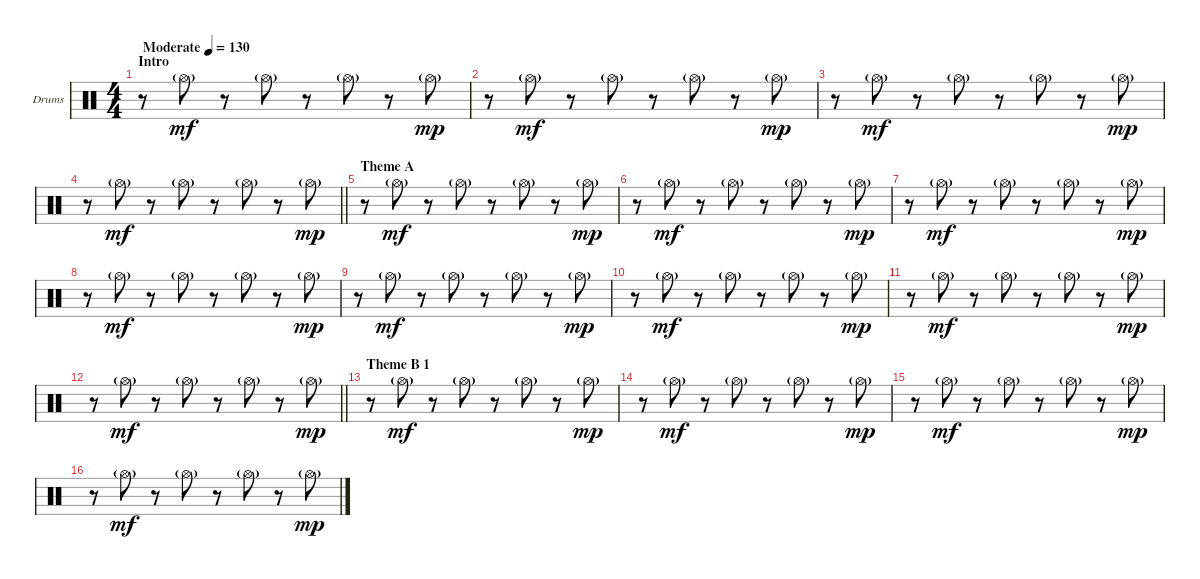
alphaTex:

\bracketExtendMode groupsimilarinstruments
\firstSystemTrackNameOrientation horizontal
\otherSystemsTrackNameOrientation horizontal
\track ("Drumkit" "Drums") {instrument percussion}
\staff {score}
\articulation defaults
\ts (4 4)
\beaming (8 2 2 2 2)
\section ("" "Intro")
\tempo (130 "Moderate")
\clef neutral
\ks c
r.8{dy mf} "Hi-Hat (open)"{g}.8 r.8 "Hi-Hat (open)"{g}.8 r.8 "Hi-Hat (open)"{g}.8 r.8 "Hi-Hat (open)"{g}.8{dy mp} |
r.8 "Hi-Hat (open)"{g}.8{dy mf} r.8 "Hi-Hat (open)"{g}.8 r.8 "Hi-Hat (open)"{g}.8 r.8 "Hi-Hat (open)"{g}.8{dy mp} |
r.8 "Hi-Hat (open)"{g}.8{dy mf} r.8 "Hi-Hat (open)"{g}.8 r.8 "Hi-Hat (open)"{g}.8 r.8 "Hi-Hat (open)"{g}.8{dy mp} |
\barLineRight lightlight
r.8 "Hi-Hat (open)"{g}.8{dy mf} r.8 "Hi-Hat (open)"{g}.8 r.8 "Hi-Hat (open)"{g}.8 r.8 "Hi-Hat (open)"{g}.8{dy mp} |
\section ("" "Theme A")
r.8 "Hi-Hat (open)"{g}.8{dy mf} r.8 "Hi-Hat (open)"{g}.8 r.8 "Hi-Hat (open)"{g}.8 r.8 "Hi-Hat (open)"{g}.8{dy mp} |
r.8 "Hi-Hat (open)"{g}.8{dy mf} r.8 "Hi-Hat (open)"{g}.8 r.8 "Hi-Hat (open)"{g}.8 r.8 "Hi-Hat (open)"{g}.8{dy mp} |
r.8 "Hi-Hat (open)"{g}.8{dy mf} r.8 "Hi-Hat (open)"{g}.8 r.8 "Hi-Hat (open)"{g}.8 r.8 "Hi-Hat (open)"{g}.8{dy mp} |
r.8 "Hi-Hat (open)"{g}.8{dy mf} r.8 "Hi-Hat (open)"{g}.8 r.8 "Hi-Hat (open)"{g}.8 r.8 "Hi-Hat (open)"{g}.8{dy mp} |
r.8 "Hi-Hat (open)"{g}.8{dy mf} r.8 "Hi-Hat (open)"{g}.8 r.8 "Hi-Hat (open)"{g}.8 r.8 "Hi-Hat (open)"{g}.8{dy mp} |
r.8 "Hi-Hat (open)"{g}.8{dy mf} r.8 "Hi-Hat (open)"{g}.8 r.8 "Hi-Hat (open)"{g}.8 r.8 "Hi-Hat (open)"{g}.8{dy mp} |
r.8 "Hi-Hat (open)"{g}.8{dy mf} r.8 "Hi-Hat (open)"{g}.8 r.8 "Hi-Hat (open)"{g}.8 r.8 "Hi-Hat (open)"{g}.8{dy mp} |
\barLineRight lightlight
r.8 "Hi-Hat (open)"{g}.8{dy mf} r.8 "Hi-Hat (open)"{g}.8 r.8 "Hi-Hat (open)"{g}.8 r.8 "Hi-Hat (open)"{g}.8{dy mp} |
\section ("" "Theme B 1")
r.8 "Hi-Hat (open)"{g}.8{dy mf} r.8 "Hi-Hat (open)"{g}.8 r.8 "Hi-Hat (open)"{g}.8 r.8 "Hi-Hat (open)"{g}.8{dy mp} |
r.8 "Hi-Hat (open)"{g}.8{dy mf} r.8 "Hi-Hat (open)"{g}.8 r.8 "Hi-Hat (open)"{g}.8 r.8 "Hi-Hat (open)"{g}.8{dy mp} |
r.8 "Hi-Hat (open)"{g}.8{dy mf} r.8 "Hi-Hat (open)"{g}.8 r.8 "Hi-Hat (open)"{g}.8 r.8 "Hi-Hat (open)"{g}.8{dy mp} |
r.8 "Hi-Hat (open)"{g}.8{dy mf} r.8 "Hi-Hat (open)"{g}.8 r.8 "Hi-Hat (open)"{g}.8 r.8 "Hi-Hat (open)"{g}.8{dy mp}
